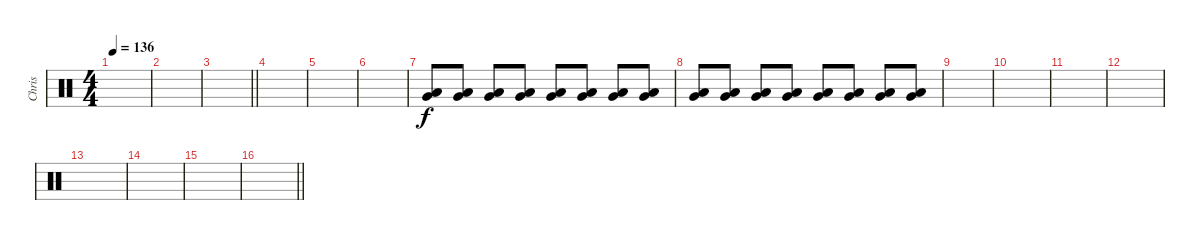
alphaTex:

\track ("Chris" "Chris") {instrument percussion}
\staff {score}
\articulation defaults
\ts (4 4)
\tempo 136
\clef neutral
\ks c
|
|
\barLineRight lightlight
|
|
|
|
("Very Low Tom (hit)" "Low Floor Tom (hit)").8 ("Very Low Tom (hit)" "Low Floor Tom (hit)").8 ("Very Low Tom (hit)" "Low Floor Tom (hit)").8 ("Very Low Tom (hit)" "Low Floor Tom (hit)").8 ("Very Low Tom (hit)" "Low Floor Tom (hit)").8 ("Very Low Tom (hit)" "Low Floor Tom (hit)").8 ("Very Low Tom (hit)" "Low Floor Tom (hit)").8 ("Very Low Tom (hit)" "Low Floor Tom (hit)").8 |
("Very Low Tom (hit)" "Low Floor Tom (hit)").8 ("Very Low Tom (hit)" "Low Floor Tom (hit)").8 ("Very Low Tom (hit)" "Low Floor Tom (hit)").8 ("Very Low Tom (hit)" "Low Floor Tom (hit)").8 ("Very Low Tom (hit)" "Low Floor Tom (hit)").8 ("Very Low Tom (hit)" "Low Floor Tom (hit)").8 ("Very Low Tom (hit)" "Low Floor Tom (hit)").8 ("Very Low Tom (hit)" "Low Floor Tom (hit)").8 |
|
|
|
|
|
|
|
\barLineRight lightlight
